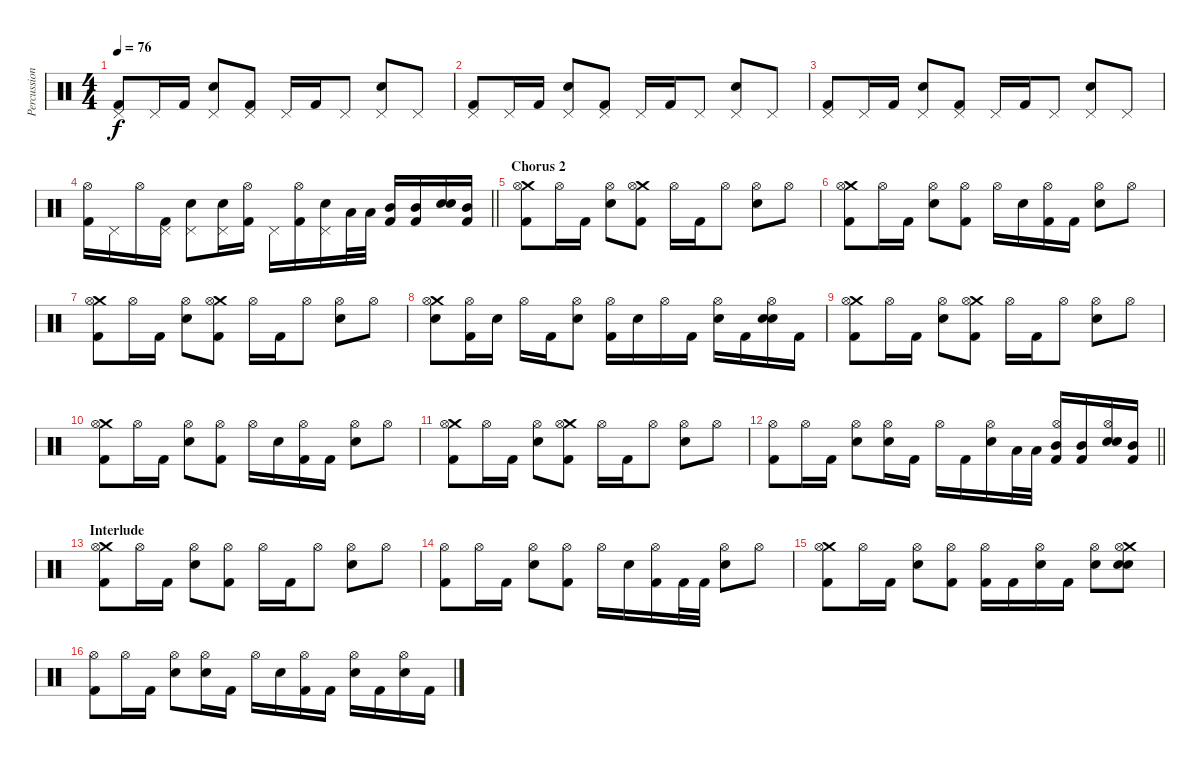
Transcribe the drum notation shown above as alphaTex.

\track ("Percussions" "Percussion") {instrument percussion}
\staff {score}
\articulation defaults
\ts (4 4)
\tempo 76
\clef neutral
\ks c
("Pedal Hi-Hat (hit)" "Kick (hit) 2").8{dy f} "Pedal Hi-Hat (hit)".16 "Kick (hit) 2".16 ("Pedal Hi-Hat (hit)" "Snare (hit) 2").8 ("Pedal Hi-Hat (hit)" "Kick (hit) 2").8 "Pedal Hi-Hat (hit)".16 "Kick (hit) 2".16 "Pedal Hi-Hat (hit)".8 ("Pedal Hi-Hat (hit)" "Snare (hit) 2").8 "Pedal Hi-Hat (hit)".8 |
("Pedal Hi-Hat (hit)" "Kick (hit) 2").8 "Pedal Hi-Hat (hit)".16 "Kick (hit) 2".16 ("Pedal Hi-Hat (hit)" "Snare (hit) 2").8 ("Pedal Hi-Hat (hit)" "Kick (hit) 2").8 "Pedal Hi-Hat (hit)".16 "Kick (hit) 2".16 "Pedal Hi-Hat (hit)".8 ("Pedal Hi-Hat (hit)" "Snare (hit) 2").8 "Pedal Hi-Hat (hit)".8 |
("Pedal Hi-Hat (hit)" "Kick (hit) 2").8 "Pedal Hi-Hat (hit)".16 "Kick (hit) 2".16 ("Pedal Hi-Hat (hit)" "Snare (hit) 2").8 ("Pedal Hi-Hat (hit)" "Kick (hit) 2").8 "Pedal Hi-Hat (hit)".16 "Kick (hit) 2".16 "Pedal Hi-Hat (hit)".8 ("Pedal Hi-Hat (hit)" "Snare (hit) 2").8 "Pedal Hi-Hat (hit)".8 |
\barLineRight lightlight
("Hi-Hat (open)" "Kick (hit) 2").16 "Pedal Hi-Hat (hit)".16 "Hi-Hat (open)".16 ("Pedal Hi-Hat (hit)" "Kick (hit) 2").16 ("Pedal Hi-Hat (hit)" "Snare (hit) 2").8 ("Pedal Hi-Hat (hit)" "Snare (hit) 2").16 ("Hi-Hat (open)" "Kick (hit) 2").16 "Pedal Hi-Hat (hit)".16 ("Hi-Hat (open)" "Kick (hit) 2").16 ("Pedal Hi-Hat (hit)" "Snare (hit) 2").16 "Low Floor Tom (hit)".32 "Low Floor Tom (hit)".32 ("Mid Tom (hit)" "Kick (hit) 2").16 ("Mid Tom (hit)" "Kick (hit) 2").16 ("Snare (hit) 2" "Electric Snare (hit)").16 ("Mid Tom (hit)" "Kick (hit) 2").16 |
\section ("" "Chorus 2")
("Crash medium (hit)" "Hi-Hat (open)" "Kick (hit) 2").8 "Hi-Hat (open)".16 "Kick (hit) 2".16 ("Hi-Hat (open)" "Snare (hit) 2").8 ("Crash medium (hit)" "Hi-Hat (open)" "Kick (hit) 2").8 "Hi-Hat (open)".16 "Kick (hit) 2".16 "Hi-Hat (open)".8 ("Hi-Hat (open)" "Snare (hit) 2").8 "Hi-Hat (open)".8 |
("Crash medium (hit)" "Hi-Hat (open)" "Kick (hit) 2").8 "Hi-Hat (open)".16 "Kick (hit) 2".16 ("Hi-Hat (open)" "Snare (hit) 2").8 ("Hi-Hat (open)" "Kick (hit) 2").8 "Hi-Hat (open)".16 "Snare (hit) 2".16 ("Hi-Hat (open)" "Kick (hit) 2").16 "Kick (hit) 2".16 ("Hi-Hat (open)" "Snare (hit) 2").8 "Hi-Hat (open)".8 |
("Crash medium (hit)" "Hi-Hat (open)" "Kick (hit) 2").8 "Hi-Hat (open)".16 "Kick (hit) 2".16 ("Hi-Hat (open)" "Snare (hit) 2").8 ("Crash medium (hit)" "Hi-Hat (open)" "Kick (hit) 2").8 "Hi-Hat (open)".16 "Kick (hit) 2".16 "Hi-Hat (open)".8 ("Hi-Hat (open)" "Snare (hit) 2").8 "Hi-Hat (open)".8 |
("Crash medium (hit)" "Hi-Hat (open)" "Snare (hit) 2").8 ("Hi-Hat (open)" "Kick (hit) 2").16 "Snare (hit) 2".16 "Hi-Hat (open)".16 "Kick (hit) 2".16 ("Hi-Hat (open)" "Snare (hit) 2").8 ("Hi-Hat (open)" "Kick (hit) 2").16 "Snare (hit) 2".16 "Hi-Hat (open)".16 "Kick (hit) 2".16 ("Hi-Hat (open)" "Snare (hit) 2").16 "Kick (hit) 2".16 ("Hi-Hat (open)" "Snare (hit) 2" "Electric Snare (hit)").16 "Kick (hit) 2".16 |
("Crash medium (hit)" "Hi-Hat (open)" "Kick (hit) 2").8 "Hi-Hat (open)".16 "Kick (hit) 2".16 ("Hi-Hat (open)" "Snare (hit) 2").8 ("Crash medium (hit)" "Hi-Hat (open)" "Kick (hit) 2").8 "Hi-Hat (open)".16 "Kick (hit) 2".16 "Hi-Hat (open)".8 ("Hi-Hat (open)" "Snare (hit) 2").8 "Hi-Hat (open)".8 |
("Crash medium (hit)" "Hi-Hat (open)" "Kick (hit) 2").8 "Hi-Hat (open)".16 "Kick (hit) 2".16 ("Hi-Hat (open)" "Snare (hit) 2").8 ("Hi-Hat (open)" "Kick (hit) 2").8 "Hi-Hat (open)".16 "Snare (hit) 2".16 ("Hi-Hat (open)" "Kick (hit) 2").16 "Kick (hit) 2".16 ("Hi-Hat (open)" "Snare (hit) 2").8 "Hi-Hat (open)".8 |
("Crash medium (hit)" "Hi-Hat (open)" "Kick (hit) 2").8 "Hi-Hat (open)".16 "Kick (hit) 2".16 ("Hi-Hat (open)" "Snare (hit) 2").8 ("Crash medium (hit)" "Hi-Hat (open)" "Kick (hit) 2").8 "Hi-Hat (open)".16 "Kick (hit) 2".16 "Hi-Hat (open)".8 ("Hi-Hat (open)" "Snare (hit) 2").8 "Hi-Hat (open)".8 |
\barLineRight lightlight
("Hi-Hat (open)" "Kick (hit) 2").8 "Hi-Hat (open)".16 "Kick (hit) 2".16 ("Hi-Hat (open)" "Snare (hit) 2").8 ("Hi-Hat (open)" "Snare (hit) 2").16 "Kick (hit) 2".16 "Hi-Hat (open)".16 "Kick (hit) 2".16 ("Hi-Hat (open)" "Snare (hit) 2").16 "Low Floor Tom (hit)".32 "Low Floor Tom (hit)".32 ("Hi-Hat (open)" "Mid Tom (hit)" "Kick (hit) 2").16 ("Mid Tom (hit)" "Kick (hit) 2").16 ("Hi-Hat (open)" "Snare (hit) 2" "Electric Snare (hit)").16 ("Mid Tom (hit)" "Kick (hit) 2").16 |
\section ("" "Interlude")
("Crash medium (hit)" "Hi-Hat (open)" "Kick (hit) 2").8 "Hi-Hat (open)".16 "Kick (hit) 2".16 ("Hi-Hat (open)" "Snare (hit) 2").8 ("Hi-Hat (open)" "Kick (hit) 2").8 "Hi-Hat (open)".16 "Kick (hit) 2".16 "Hi-Hat (open)".8 ("Hi-Hat (open)" "Snare (hit) 2").8 "Hi-Hat (open)".8 |
("Hi-Hat (open)" "Kick (hit) 2").8 "Hi-Hat (open)".16 "Kick (hit) 2".16 ("Hi-Hat (open)" "Snare (hit) 2").8 ("Hi-Hat (open)" "Kick (hit) 2").8 "Hi-Hat (open)".16 "Snare (hit) 2".16 ("Hi-Hat (open)" "Kick (hit) 2").16 "Kick (hit) 2".32 "Kick (hit) 2".32 ("Hi-Hat (open)" "Snare (hit) 2").8 "Hi-Hat (open)".8 |
("Crash medium (hit)" "Hi-Hat (open)" "Kick (hit) 2").8 "Hi-Hat (open)".16 "Kick (hit) 2".16 ("Hi-Hat (open)" "Snare (hit) 2").8 ("Hi-Hat (open)" "Kick (hit) 2").8 ("Hi-Hat (open)" "Kick (hit) 2").16 "Kick (hit) 2".16 ("Hi-Hat (open)" "Snare (hit) 2").16 "Kick (hit) 2".16 ("Hi-Hat (open)" "Snare (hit) 2").8 ("Crash medium (hit)" "Hi-Hat (open)" "Snare (hit) 2" "Electric Snare (hit)").8 |
("Hi-Hat (open)" "Kick (hit) 2").8 "Hi-Hat (open)".16 "Kick (hit) 2".16 ("Hi-Hat (open)" "Snare (hit) 2").8 ("Hi-Hat (open)" "Snare (hit) 2").16 "Kick (hit) 2".16 "Hi-Hat (open)".16 "Snare (hit) 2".16 ("Hi-Hat (open)" "Kick (hit) 2").16 "Kick (hit) 2".16 ("Hi-Hat (open)" "Snare (hit) 2").16 "Kick (hit) 2".16 ("Hi-Hat (open)" "Snare (hit) 2").16 "Kick (hit) 2".16
